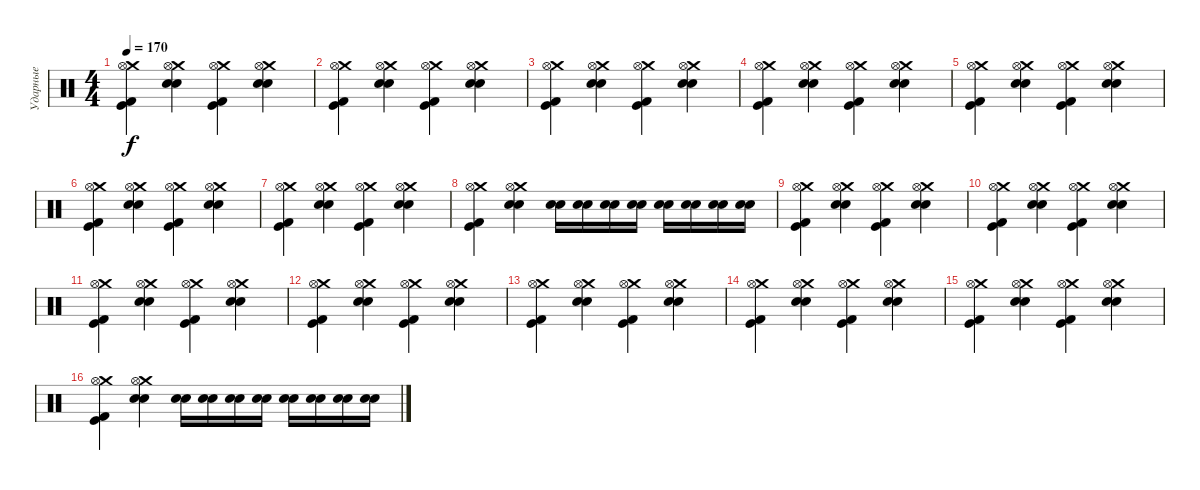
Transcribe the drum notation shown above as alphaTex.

\track ("Ударные" "Ударные") {instrument percussion}
\staff {score}
\articulation defaults
\ts (4 4)
\tempo 170
\clef neutral
\ks c
("Crash medium (hit)" "Hi-Hat (open)" "Kick (hit)" "Kick (hit) 2").4{dy f} ("Crash medium (hit)" "Hi-Hat (open)" "Electric Snare (hit)" "Snare (hit) 2").4 ("Crash medium (hit)" "Hi-Hat (open)" "Kick (hit)" "Kick (hit) 2").4 ("Crash medium (hit)" "Hi-Hat (open)" "Electric Snare (hit)" "Snare (hit) 2").4 |
("Crash medium (hit)" "Hi-Hat (open)" "Kick (hit)" "Kick (hit) 2").4 ("Crash medium (hit)" "Hi-Hat (open)" "Electric Snare (hit)" "Snare (hit) 2").4 ("Crash medium (hit)" "Hi-Hat (open)" "Kick (hit)" "Kick (hit) 2").4 ("Crash medium (hit)" "Hi-Hat (open)" "Electric Snare (hit)" "Snare (hit) 2").4 |
("Crash medium (hit)" "Hi-Hat (open)" "Kick (hit)" "Kick (hit) 2").4 ("Crash medium (hit)" "Hi-Hat (open)" "Electric Snare (hit)" "Snare (hit) 2").4 ("Crash medium (hit)" "Hi-Hat (open)" "Kick (hit)" "Kick (hit) 2").4 ("Crash medium (hit)" "Hi-Hat (open)" "Electric Snare (hit)" "Snare (hit) 2").4 |
("Crash medium (hit)" "Hi-Hat (open)" "Kick (hit)" "Kick (hit) 2").4 ("Crash medium (hit)" "Hi-Hat (open)" "Electric Snare (hit)" "Snare (hit) 2").4 ("Crash medium (hit)" "Hi-Hat (open)" "Kick (hit)" "Kick (hit) 2").4 ("Crash medium (hit)" "Hi-Hat (open)" "Electric Snare (hit)" "Snare (hit) 2").4 |
("Crash medium (hit)" "Hi-Hat (open)" "Kick (hit)" "Kick (hit) 2").4 ("Crash medium (hit)" "Hi-Hat (open)" "Electric Snare (hit)" "Snare (hit) 2").4 ("Crash medium (hit)" "Hi-Hat (open)" "Kick (hit)" "Kick (hit) 2").4 ("Crash medium (hit)" "Hi-Hat (open)" "Electric Snare (hit)" "Snare (hit) 2").4 |
("Crash medium (hit)" "Hi-Hat (open)" "Kick (hit)" "Kick (hit) 2").4 ("Crash medium (hit)" "Hi-Hat (open)" "Electric Snare (hit)" "Snare (hit) 2").4 ("Crash medium (hit)" "Hi-Hat (open)" "Kick (hit)" "Kick (hit) 2").4 ("Crash medium (hit)" "Hi-Hat (open)" "Electric Snare (hit)" "Snare (hit) 2").4 |
("Crash medium (hit)" "Hi-Hat (open)" "Kick (hit)" "Kick (hit) 2").4 ("Crash medium (hit)" "Hi-Hat (open)" "Electric Snare (hit)" "Snare (hit) 2").4 ("Crash medium (hit)" "Hi-Hat (open)" "Kick (hit)" "Kick (hit) 2").4 ("Crash medium (hit)" "Hi-Hat (open)" "Electric Snare (hit)" "Snare (hit) 2").4 |
("Crash medium (hit)" "Hi-Hat (open)" "Kick (hit)" "Kick (hit) 2").4 ("Crash medium (hit)" "Hi-Hat (open)" "Electric Snare (hit)" "Snare (hit) 2").4 ("Snare (hit) 2" "Electric Snare (hit)").16 ("Snare (hit) 2" "Electric Snare (hit)").16 ("Snare (hit) 2" "Electric Snare (hit)").16 ("Snare (hit) 2" "Electric Snare (hit)").16 ("Snare (hit) 2" "Electric Snare (hit)").16 ("Snare (hit) 2" "Electric Snare (hit)").16 ("Snare (hit) 2" "Electric Snare (hit)").16 ("Snare (hit) 2" "Electric Snare (hit)").16 |
("Crash medium (hit)" "Hi-Hat (open)" "Kick (hit)" "Kick (hit) 2").4 ("Crash medium (hit)" "Hi-Hat (open)" "Electric Snare (hit)" "Snare (hit) 2").4 ("Crash medium (hit)" "Hi-Hat (open)" "Kick (hit)" "Kick (hit) 2").4 ("Crash medium (hit)" "Hi-Hat (open)" "Electric Snare (hit)" "Snare (hit) 2").4 |
("Crash medium (hit)" "Hi-Hat (open)" "Kick (hit)" "Kick (hit) 2").4 ("Crash medium (hit)" "Hi-Hat (open)" "Electric Snare (hit)" "Snare (hit) 2").4 ("Crash medium (hit)" "Hi-Hat (open)" "Kick (hit)" "Kick (hit) 2").4 ("Crash medium (hit)" "Hi-Hat (open)" "Electric Snare (hit)" "Snare (hit) 2").4 |
("Crash medium (hit)" "Hi-Hat (open)" "Kick (hit)" "Kick (hit) 2").4 ("Crash medium (hit)" "Hi-Hat (open)" "Electric Snare (hit)" "Snare (hit) 2").4 ("Crash medium (hit)" "Hi-Hat (open)" "Kick (hit)" "Kick (hit) 2").4 ("Crash medium (hit)" "Hi-Hat (open)" "Electric Snare (hit)" "Snare (hit) 2").4 |
("Crash medium (hit)" "Hi-Hat (open)" "Kick (hit)" "Kick (hit) 2").4 ("Crash medium (hit)" "Hi-Hat (open)" "Electric Snare (hit)" "Snare (hit) 2").4 ("Crash medium (hit)" "Hi-Hat (open)" "Kick (hit)" "Kick (hit) 2").4 ("Crash medium (hit)" "Hi-Hat (open)" "Electric Snare (hit)" "Snare (hit) 2").4 |
("Crash medium (hit)" "Hi-Hat (open)" "Kick (hit)" "Kick (hit) 2").4 ("Crash medium (hit)" "Hi-Hat (open)" "Electric Snare (hit)" "Snare (hit) 2").4 ("Crash medium (hit)" "Hi-Hat (open)" "Kick (hit)" "Kick (hit) 2").4 ("Crash medium (hit)" "Hi-Hat (open)" "Electric Snare (hit)" "Snare (hit) 2").4 |
("Crash medium (hit)" "Hi-Hat (open)" "Kick (hit)" "Kick (hit) 2").4 ("Crash medium (hit)" "Hi-Hat (open)" "Electric Snare (hit)" "Snare (hit) 2").4 ("Crash medium (hit)" "Hi-Hat (open)" "Kick (hit)" "Kick (hit) 2").4 ("Crash medium (hit)" "Hi-Hat (open)" "Electric Snare (hit)" "Snare (hit) 2").4 |
("Crash medium (hit)" "Hi-Hat (open)" "Kick (hit)" "Kick (hit) 2").4 ("Crash medium (hit)" "Hi-Hat (open)" "Electric Snare (hit)" "Snare (hit) 2").4 ("Crash medium (hit)" "Hi-Hat (open)" "Kick (hit)" "Kick (hit) 2").4 ("Crash medium (hit)" "Hi-Hat (open)" "Electric Snare (hit)" "Snare (hit) 2").4 |
("Crash medium (hit)" "Hi-Hat (open)" "Kick (hit)" "Kick (hit) 2").4 ("Crash medium (hit)" "Hi-Hat (open)" "Electric Snare (hit)" "Snare (hit) 2").4 ("Snare (hit) 2" "Electric Snare (hit)").16 ("Snare (hit) 2" "Electric Snare (hit)").16 ("Snare (hit) 2" "Electric Snare (hit)").16 ("Snare (hit) 2" "Electric Snare (hit)").16 ("Snare (hit) 2" "Electric Snare (hit)").16 ("Snare (hit) 2" "Electric Snare (hit)").16 ("Snare (hit) 2" "Electric Snare (hit)").16 ("Snare (hit) 2" "Electric Snare (hit)").16
